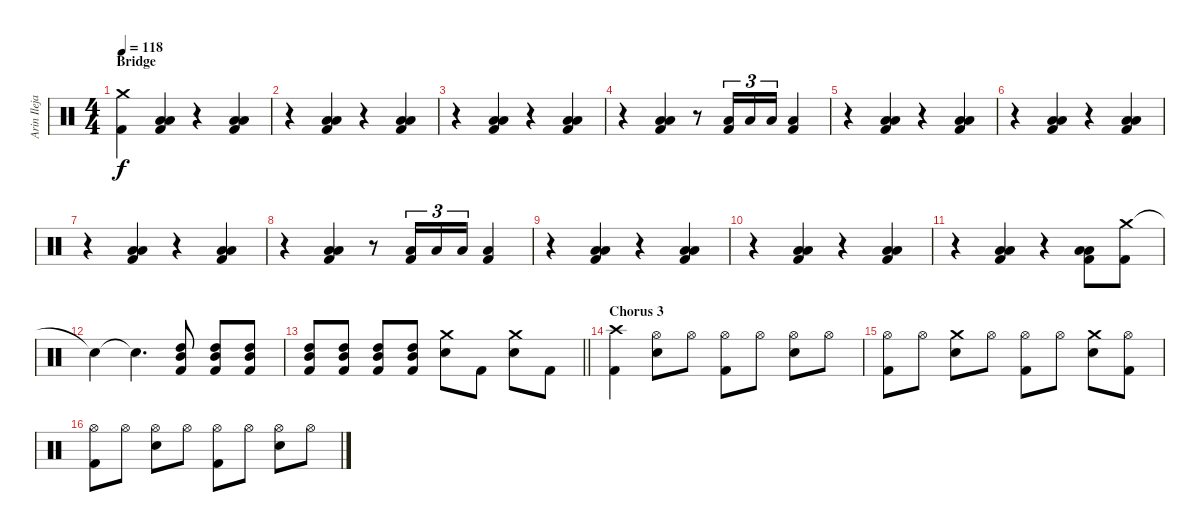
\track ("Arin Ilejay" "Arin Ileja") {instrument percussion bank 164}
\staff {score}
\articulation defaults
\ts (4 4)
\section ("" "Bridge")
\tempo 118
\clef neutral
\ks c
("Crash medium (hit)" "Kick (hit) 2").4{dy f} ("Low Tom (hit)" "Low Floor Tom (hit)" "Kick (hit) 2").4 r.4 ("Low Tom (hit)" "Low Floor Tom (hit)" "Kick (hit) 2").4 |
r.4 ("Low Tom (hit)" "Low Floor Tom (hit)" "Kick (hit) 2").4 r.4 ("Low Tom (hit)" "Low Floor Tom (hit)" "Kick (hit) 2").4 |
r.4 ("Low Tom (hit)" "Low Floor Tom (hit)" "Kick (hit) 2").4 r.4 ("Low Tom (hit)" "Low Floor Tom (hit)" "Kick (hit) 2").4 |
r.4 ("Low Tom (hit)" "Low Floor Tom (hit)" "Kick (hit) 2").4 r.8 ("Low Tom (hit)" "Kick (hit) 2").16{tu (3 2)} "Low Tom (hit)".16{tu (3 2)} "Low Tom (hit)".16{tu (3 2)} ("Low Floor Tom (hit)" "Kick (hit) 2").4 |
r.4 ("Low Tom (hit)" "Low Floor Tom (hit)" "Kick (hit) 2").4 r.4 ("Low Tom (hit)" "Low Floor Tom (hit)" "Kick (hit) 2").4 |
r.4 ("Low Tom (hit)" "Low Floor Tom (hit)" "Kick (hit) 2").4 r.4 ("Low Tom (hit)" "Low Floor Tom (hit)" "Kick (hit) 2").4 |
r.4 ("Low Tom (hit)" "Low Floor Tom (hit)" "Kick (hit) 2").4 r.4 ("Low Tom (hit)" "Low Floor Tom (hit)" "Kick (hit) 2").4 |
r.4 ("Low Tom (hit)" "Low Floor Tom (hit)" "Kick (hit) 2").4 r.8 ("Low Tom (hit)" "Kick (hit) 2").16{tu (3 2)} "Low Tom (hit)".16{tu (3 2)} "Low Tom (hit)".16{tu (3 2)} ("Low Floor Tom (hit)" "Kick (hit) 2").4 |
r.4 ("Low Tom (hit)" "Low Floor Tom (hit)" "Kick (hit) 2").4 r.4 ("Low Tom (hit)" "Low Floor Tom (hit)" "Kick (hit) 2").4 |
r.4 ("Low Tom (hit)" "Low Floor Tom (hit)" "Kick (hit) 2").4 r.4 ("Low Tom (hit)" "Low Floor Tom (hit)" "Kick (hit) 2").4 |
r.4 ("Low Tom (hit)" "Low Floor Tom (hit)" "Kick (hit) 2").4 r.4 ("Low Tom (hit)" "Low Floor Tom (hit)" "Kick (hit) 2").8 ("Crash medium (hit)" "Kick (hit) 2").8 |
"Snare (hit)"{t}.4 "Snare (hit)"{t}.4{d} ("Mid Tom (hit)" "High Tom (hit)" "Kick (hit) 2").8 ("Mid Tom (hit)" "High Tom (hit)" "Kick (hit) 2").8 ("Mid Tom (hit)" "High Tom (hit)" "Kick (hit) 2").8 |
\barLineRight lightlight
("Mid Tom (hit)" "High Tom (hit)" "Kick (hit) 2").8 ("Mid Tom (hit)" "High Tom (hit)" "Kick (hit) 2").8 ("Mid Tom (hit)" "High Tom (hit)" "Kick (hit) 2").8 ("Mid Tom (hit)" "High Tom (hit)" "Kick (hit) 2").8 ("Crash medium (hit)" "Electric Snare (hit)").8 "Kick (hit) 2".8 ("Crash medium (hit)" "Electric Snare (hit)").8 "Kick (hit) 2".8 |
\section ("" "Chorus 3")
("Crash high (hit)" "Kick (hit) 2").4 ("Hi-Hat (open)" "Electric Snare (hit)").8 "Hi-Hat (open)".8 ("Hi-Hat (open)" "Kick (hit) 2").8 "Hi-Hat (open)".8 ("Hi-Hat (open)" "Electric Snare (hit)").8 "Hi-Hat (open)".8 |
("Hi-Hat (open)" "Kick (hit) 2").8 "Hi-Hat (open)".8 ("Crash medium (hit)" "Electric Snare (hit)").8 "Hi-Hat (open)".8 ("Hi-Hat (open)" "Kick (hit) 2").8 "Hi-Hat (open)".8 ("Crash medium (hit)" "Electric Snare (hit)").8 ("Hi-Hat (open)" "Kick (hit) 2").8 |
("Hi-Hat (open)" "Kick (hit) 2").8 "Hi-Hat (open)".8 ("Hi-Hat (open)" "Electric Snare (hit)").8 "Hi-Hat (open)".8 ("Hi-Hat (open)" "Kick (hit) 2").8 "Hi-Hat (open)".8 ("Hi-Hat (open)" "Electric Snare (hit)").8 "Hi-Hat (open)".8
